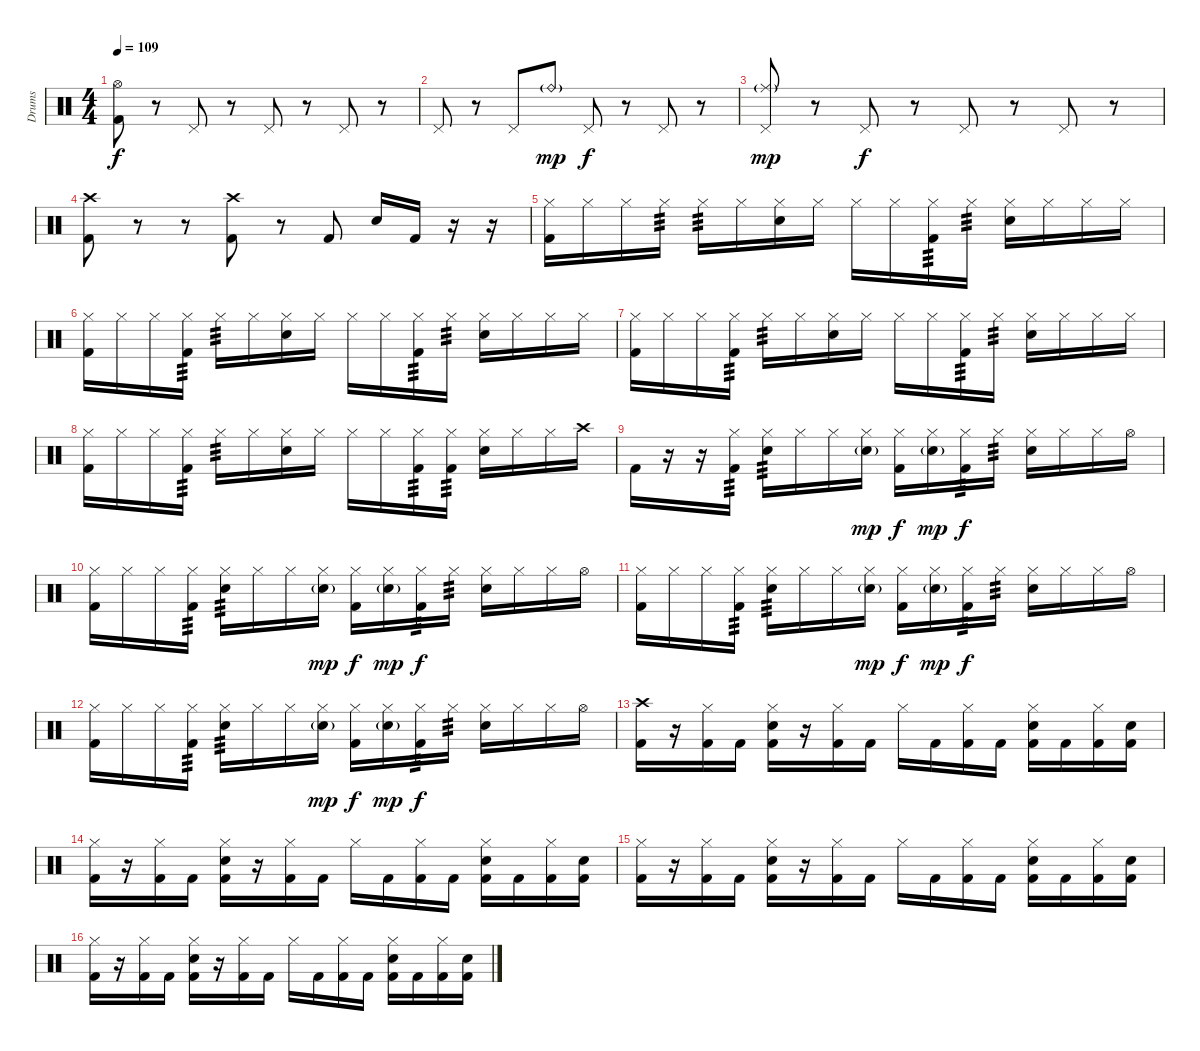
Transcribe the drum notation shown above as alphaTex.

\track ("Drums" "Drums") {instrument percussion}
\staff {score}
\articulation defaults
\ts (4 4)
\tempo 109
\clef neutral
\ks c
("Hi-Hat (open)" "Kick (hit) 2").8{dy f} r.8 "Pedal Hi-Hat (hit)".8 r.8 "Pedal Hi-Hat (hit)".8 r.8 "Pedal Hi-Hat (hit)".8 r.8 |
"Pedal Hi-Hat (hit)".8 r.8 "Pedal Hi-Hat (hit)".8 "Ride (bell)"{g}.8{dy mp} "Pedal Hi-Hat (hit)".8{dy f} r.8 "Pedal Hi-Hat (hit)".8 r.8 |
("Pedal Hi-Hat (hit)" "Ride (middle)"{g}).8{dy mp} r.8 "Pedal Hi-Hat (hit)".8{dy f} r.8 "Pedal Hi-Hat (hit)".8 r.8 "Pedal Hi-Hat (hit)".8 r.8 |
("Crash high (hit)" "Kick (hit) 2").8 r.8 r.8 ("Crash high (hit)" "Kick (hit) 2").8 r.8 "Kick (hit) 2".8 "Electric Snare (hit)".16 "Kick (hit) 2".16 r.16 r.16 |
("Hi-Hat (closed)" "Kick (hit) 2").16 "Hi-Hat (closed)".16 "Hi-Hat (closed)".16 "Hi-Hat (closed)".16{tp 3} "Hi-Hat (closed)".16{tp 3} "Hi-Hat (closed)".16 ("Hi-Hat (closed)" "Electric Snare (hit)").16 "Hi-Hat (closed)".16 "Hi-Hat (closed)".16 "Hi-Hat (closed)".16 ("Hi-Hat (closed)" "Kick (hit) 2").16{tp 3} "Hi-Hat (closed)".16{tp 3} ("Hi-Hat (closed)" "Electric Snare (hit)").16 "Hi-Hat (closed)".16 "Hi-Hat (closed)".16 "Hi-Hat (closed)".16 |
("Hi-Hat (closed)" "Kick (hit) 2").16 "Hi-Hat (closed)".16 "Hi-Hat (closed)".16 ("Hi-Hat (closed)" "Kick (hit) 2").16{tp 3} "Hi-Hat (closed)".16{tp 3} "Hi-Hat (closed)".16 ("Hi-Hat (closed)" "Electric Snare (hit)").16 "Hi-Hat (closed)".16 "Hi-Hat (closed)".16 "Hi-Hat (closed)".16 ("Hi-Hat (closed)" "Kick (hit) 2").16{tp 3} "Hi-Hat (closed)".16{tp 3} ("Hi-Hat (closed)" "Electric Snare (hit)").16 "Hi-Hat (closed)".16 "Hi-Hat (closed)".16 "Hi-Hat (closed)".16 |
("Hi-Hat (closed)" "Kick (hit) 2").16 "Hi-Hat (closed)".16 "Hi-Hat (closed)".16 ("Hi-Hat (closed)" "Kick (hit) 2").16{tp 3} "Hi-Hat (closed)".16{tp 3} "Hi-Hat (closed)".16 ("Hi-Hat (closed)" "Electric Snare (hit)").16 "Hi-Hat (closed)".16 "Hi-Hat (closed)".16 "Hi-Hat (closed)".16 ("Hi-Hat (closed)" "Kick (hit) 2").16{tp 3} "Hi-Hat (closed)".16{tp 3} ("Hi-Hat (closed)" "Electric Snare (hit)").16 "Hi-Hat (closed)".16 "Hi-Hat (closed)".16 "Hi-Hat (closed)".16 |
("Hi-Hat (closed)" "Kick (hit) 2").16 "Hi-Hat (closed)".16 "Hi-Hat (closed)".16 ("Hi-Hat (closed)" "Kick (hit) 2").16{tp 3} "Hi-Hat (closed)".16{tp 3} "Hi-Hat (closed)".16 ("Hi-Hat (closed)" "Electric Snare (hit)").16 "Hi-Hat (closed)".16 "Hi-Hat (closed)".16 "Hi-Hat (closed)".16 ("Hi-Hat (closed)" "Kick (hit) 2").16{tp 3} ("Hi-Hat (closed)" "Kick (hit) 2").16{tp 3} ("Hi-Hat (closed)" "Electric Snare (hit)").16 "Hi-Hat (closed)".16 "Hi-Hat (closed)".16 "Crash high (hit)".16 |
"Kick (hit) 2".16 r.16 r.16 ("Hi-Hat (closed)" "Kick (hit) 2").16{tp 3} ("Hi-Hat (closed)" "Electric Snare (hit)").16{tp 3} "Hi-Hat (closed)".16 "Hi-Hat (closed)".16 ("Hi-Hat (closed)" "Electric Snare (hit)"{g}).16{dy mp} ("Hi-Hat (closed)" "Kick (hit) 2").16{dy f} ("Hi-Hat (closed)" "Electric Snare (hit)"{g}).16{dy mp} ("Hi-Hat (closed)" "Kick (hit) 2").16{tp 3 dy f} "Hi-Hat (closed)".16{tp 3} ("Hi-Hat (closed)" "Electric Snare (hit)").16 "Hi-Hat (closed)".16 "Hi-Hat (closed)".16 "Hi-Hat (open)".16 |
("Hi-Hat (closed)" "Kick (hit) 2").16 "Hi-Hat (closed)".16 "Hi-Hat (closed)".16 ("Hi-Hat (closed)" "Kick (hit) 2").16{tp 3} ("Hi-Hat (closed)" "Electric Snare (hit)").16{tp 3} "Hi-Hat (closed)".16 "Hi-Hat (closed)".16 ("Hi-Hat (closed)" "Electric Snare (hit)"{g}).16{dy mp} ("Hi-Hat (closed)" "Kick (hit) 2").16{dy f} ("Hi-Hat (closed)" "Electric Snare (hit)"{g}).16{dy mp} ("Hi-Hat (closed)" "Kick (hit) 2").16{tp 3 dy f} "Hi-Hat (closed)".16{tp 3} ("Hi-Hat (closed)" "Electric Snare (hit)").16 "Hi-Hat (closed)".16 "Hi-Hat (closed)".16 "Hi-Hat (open)".16 |
("Hi-Hat (closed)" "Kick (hit) 2").16 "Hi-Hat (closed)".16 "Hi-Hat (closed)".16 ("Hi-Hat (closed)" "Kick (hit) 2").16{tp 3} ("Hi-Hat (closed)" "Electric Snare (hit)").16{tp 3} "Hi-Hat (closed)".16 "Hi-Hat (closed)".16 ("Hi-Hat (closed)" "Electric Snare (hit)"{g}).16{dy mp} ("Hi-Hat (closed)" "Kick (hit) 2").16{dy f} ("Hi-Hat (closed)" "Electric Snare (hit)"{g}).16{dy mp} ("Hi-Hat (closed)" "Kick (hit) 2").16{tp 3 dy f} "Hi-Hat (closed)".16{tp 3} ("Hi-Hat (closed)" "Electric Snare (hit)").16 "Hi-Hat (closed)".16 "Hi-Hat (closed)".16 "Hi-Hat (open)".16 |
("Hi-Hat (closed)" "Kick (hit) 2").16 "Hi-Hat (closed)".16 "Hi-Hat (closed)".16 ("Hi-Hat (closed)" "Kick (hit) 2").16{tp 3} ("Hi-Hat (closed)" "Electric Snare (hit)").16{tp 3} "Hi-Hat (closed)".16 "Hi-Hat (closed)".16 ("Hi-Hat (closed)" "Electric Snare (hit)"{g}).16{dy mp} ("Hi-Hat (closed)" "Kick (hit) 2").16{dy f} ("Hi-Hat (closed)" "Electric Snare (hit)"{g}).16{dy mp} ("Hi-Hat (closed)" "Kick (hit) 2").16{tp 3 dy f} "Hi-Hat (closed)".16{tp 3} ("Hi-Hat (closed)" "Electric Snare (hit)").16 "Hi-Hat (closed)".16 "Hi-Hat (closed)".16 "Hi-Hat (open)".16 |
("Crash high (hit)" "Kick (hit) 2").16 r.16 ("Hi-Hat (closed)" "Kick (hit) 2").16 "Kick (hit) 2".16 ("Hi-Hat (closed)" "Electric Snare (hit)" "Kick (hit) 2").16 r.16 ("Hi-Hat (closed)" "Kick (hit) 2").16 "Kick (hit) 2".16 "Hi-Hat (closed)".16 "Kick (hit) 2".16 ("Hi-Hat (closed)" "Kick (hit) 2").16 "Kick (hit) 2".16 ("Hi-Hat (closed)" "Electric Snare (hit)" "Kick (hit) 2").16 "Kick (hit) 2".16 ("Hi-Hat (closed)" "Kick (hit) 2").16 ("Electric Snare (hit)" "Kick (hit) 2").16 |
("Hi-Hat (closed)" "Kick (hit) 2").16 r.16 ("Hi-Hat (closed)" "Kick (hit) 2").16 "Kick (hit) 2".16 ("Hi-Hat (closed)" "Electric Snare (hit)" "Kick (hit) 2").16 r.16 ("Hi-Hat (closed)" "Kick (hit) 2").16 "Kick (hit) 2".16 "Hi-Hat (closed)".16 "Kick (hit) 2".16 ("Hi-Hat (closed)" "Kick (hit) 2").16 "Kick (hit) 2".16 ("Hi-Hat (closed)" "Electric Snare (hit)" "Kick (hit) 2").16 "Kick (hit) 2".16 ("Hi-Hat (closed)" "Kick (hit) 2").16 ("Electric Snare (hit)" "Kick (hit) 2").16 |
("Hi-Hat (closed)" "Kick (hit) 2").16 r.16 ("Hi-Hat (closed)" "Kick (hit) 2").16 "Kick (hit) 2".16 ("Hi-Hat (closed)" "Electric Snare (hit)" "Kick (hit) 2").16 r.16 ("Hi-Hat (closed)" "Kick (hit) 2").16 "Kick (hit) 2".16 "Hi-Hat (closed)".16 "Kick (hit) 2".16 ("Hi-Hat (closed)" "Kick (hit) 2").16 "Kick (hit) 2".16 ("Hi-Hat (closed)" "Electric Snare (hit)" "Kick (hit) 2").16 "Kick (hit) 2".16 ("Hi-Hat (closed)" "Kick (hit) 2").16 ("Electric Snare (hit)" "Kick (hit) 2").16 |
("Hi-Hat (closed)" "Kick (hit) 2").16 r.16 ("Hi-Hat (closed)" "Kick (hit) 2").16 "Kick (hit) 2".16 ("Hi-Hat (closed)" "Electric Snare (hit)" "Kick (hit) 2").16 r.16 ("Hi-Hat (closed)" "Kick (hit) 2").16 "Kick (hit) 2".16 "Hi-Hat (closed)".16 "Kick (hit) 2".16 ("Hi-Hat (closed)" "Kick (hit) 2").16 "Kick (hit) 2".16 ("Hi-Hat (closed)" "Electric Snare (hit)" "Kick (hit) 2").16 "Kick (hit) 2".16 ("Hi-Hat (closed)" "Kick (hit) 2").16 ("Electric Snare (hit)" "Kick (hit) 2").16
